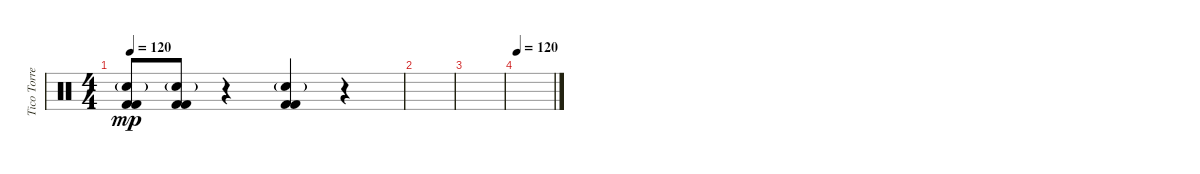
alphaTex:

\track ("Tico Torres" "Tico Torre") {instrument percussion}
\staff {score}
\articulation defaults
\ts (4 4)
\tempo 120
\clef neutral
\ks c
("Electric Snare (hit)"{g} "Kick (hit) 2" "Kick (hit) 2").8{dy mp} ("Electric Snare (hit)"{g} "Kick (hit) 2" "Kick (hit) 2").8 r.4 ("Electric Snare (hit)"{g} "Kick (hit) 2" "Kick (hit) 2").4 r.4 |
|
|
\tempo 120
